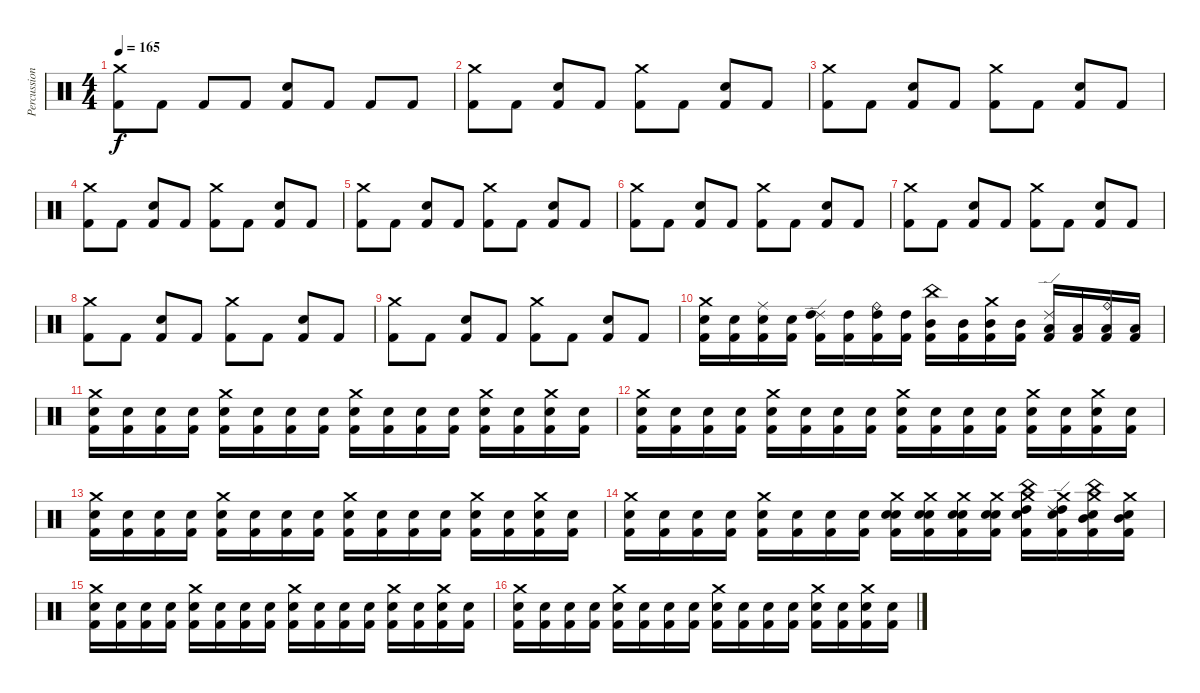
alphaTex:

\track ("Percussions" "Percussion") {instrument percussion}
\staff {score}
\articulation defaults
\ts (4 4)
\tempo 165
\clef neutral
\ks c
("Crash medium (hit)" "Kick (hit) 2").8{dy f} "Kick (hit) 2".8 "Kick (hit) 2".8 "Kick (hit) 2".8 ("Electric Snare (hit)" "Kick (hit) 2").8 "Kick (hit) 2".8 "Kick (hit) 2".8 "Kick (hit) 2".8 |
("Crash medium (hit)" "Kick (hit) 2").8 "Kick (hit) 2".8 ("Electric Snare (hit)" "Kick (hit) 2").8 "Kick (hit) 2".8 ("Crash medium (hit)" "Kick (hit) 2").8 "Kick (hit) 2".8 ("Electric Snare (hit)" "Kick (hit) 2").8 "Kick (hit) 2".8 |
("Crash medium (hit)" "Kick (hit) 2").8 "Kick (hit) 2".8 ("Electric Snare (hit)" "Kick (hit) 2").8 "Kick (hit) 2".8 ("Crash medium (hit)" "Kick (hit) 2").8 "Kick (hit) 2".8 ("Electric Snare (hit)" "Kick (hit) 2").8 "Kick (hit) 2".8 |
("Crash medium (hit)" "Kick (hit) 2").8 "Kick (hit) 2".8 ("Electric Snare (hit)" "Kick (hit) 2").8 "Kick (hit) 2".8 ("Crash medium (hit)" "Kick (hit) 2").8 "Kick (hit) 2".8 ("Electric Snare (hit)" "Kick (hit) 2").8 "Kick (hit) 2".8 |
("Crash medium (hit)" "Kick (hit) 2").8 "Kick (hit) 2".8 ("Electric Snare (hit)" "Kick (hit) 2").8 "Kick (hit) 2".8 ("Crash medium (hit)" "Kick (hit) 2").8 "Kick (hit) 2".8 ("Electric Snare (hit)" "Kick (hit) 2").8 "Kick (hit) 2".8 |
("Crash medium (hit)" "Kick (hit) 2").8 "Kick (hit) 2".8 ("Electric Snare (hit)" "Kick (hit) 2").8 "Kick (hit) 2".8 ("Crash medium (hit)" "Kick (hit) 2").8 "Kick (hit) 2".8 ("Electric Snare (hit)" "Kick (hit) 2").8 "Kick (hit) 2".8 |
("Crash medium (hit)" "Kick (hit) 2").8 "Kick (hit) 2".8 ("Electric Snare (hit)" "Kick (hit) 2").8 "Kick (hit) 2".8 ("Crash medium (hit)" "Kick (hit) 2").8 "Kick (hit) 2".8 ("Electric Snare (hit)" "Kick (hit) 2").8 "Kick (hit) 2".8 |
("Crash medium (hit)" "Kick (hit) 2").8 "Kick (hit) 2".8 ("Electric Snare (hit)" "Kick (hit) 2").8 "Kick (hit) 2".8 ("Crash medium (hit)" "Kick (hit) 2").8 "Kick (hit) 2".8 ("Electric Snare (hit)" "Kick (hit) 2").8 "Kick (hit) 2".8 |
("Crash medium (hit)" "Kick (hit) 2").8 "Kick (hit) 2".8 ("Electric Snare (hit)" "Kick (hit) 2").8 "Kick (hit) 2".8 ("Crash medium (hit)" "Kick (hit) 2").8 "Kick (hit) 2".8 ("Electric Snare (hit)" "Kick (hit) 2").8 "Kick (hit) 2".8 |
("Crash medium (hit)" "Snare (hit) 2" "Kick (hit) 2").16 ("Snare (hit) 2" "Kick (hit) 2").16 ("Ride (middle)" "Snare (hit) 2" "Kick (hit) 2").16 ("Snare (hit) 2" "Kick (hit) 2").16 ("Ride (edge) 2" "High Tom (hit)" "Kick (hit) 2").16 ("High Tom (hit)" "Kick (hit) 2").16 ("Ride (bell)" "High Tom (hit)" "Kick (hit) 2").16 ("High Tom (hit)" "Kick (hit) 2").16 ("China (hit)" "Mid Tom (hit)" "Kick (hit) 2").16 ("Mid Tom (hit)" "Kick (hit) 2").16 ("Crash medium (hit)" "Mid Tom (hit)" "Kick (hit) 2").16 ("Mid Tom (hit)" "Kick (hit) 2").16 ("Ride (edge) 2" "Low Tom (hit)" "Kick (hit) 2").16 ("Low Tom (hit)" "Kick (hit) 2").16 ("Ride (bell)" "Low Tom (hit)" "Kick (hit) 2").16 ("Low Tom (hit)" "Kick (hit) 2").16 |
("Crash medium (hit)" "Electric Snare (hit)" "Kick (hit) 2").16 ("Electric Snare (hit)" "Kick (hit) 2").16 ("Electric Snare (hit)" "Kick (hit) 2").16 ("Electric Snare (hit)" "Kick (hit) 2").16 ("Crash medium (hit)" "Electric Snare (hit)" "Kick (hit) 2").16 ("Electric Snare (hit)" "Kick (hit) 2").16 ("Electric Snare (hit)" "Kick (hit) 2").16 ("Electric Snare (hit)" "Kick (hit) 2").16 ("Crash medium (hit)" "Electric Snare (hit)" "Kick (hit) 2").16 ("Electric Snare (hit)" "Kick (hit) 2").16 ("Electric Snare (hit)" "Kick (hit) 2").16 ("Electric Snare (hit)" "Kick (hit) 2").16 ("Crash medium (hit)" "Electric Snare (hit)" "Kick (hit) 2").16 ("Electric Snare (hit)" "Kick (hit) 2").16 ("Crash medium (hit)" "Electric Snare (hit)" "Kick (hit) 2").16 ("Electric Snare (hit)" "Kick (hit) 2").16 |
("Crash medium (hit)" "Electric Snare (hit)" "Kick (hit) 2").16 ("Electric Snare (hit)" "Kick (hit) 2").16 ("Electric Snare (hit)" "Kick (hit) 2").16 ("Electric Snare (hit)" "Kick (hit) 2").16 ("Crash medium (hit)" "Electric Snare (hit)" "Kick (hit) 2").16 ("Electric Snare (hit)" "Kick (hit) 2").16 ("Electric Snare (hit)" "Kick (hit) 2").16 ("Electric Snare (hit)" "Kick (hit) 2").16 ("Crash medium (hit)" "Electric Snare (hit)" "Kick (hit) 2").16 ("Electric Snare (hit)" "Kick (hit) 2").16 ("Electric Snare (hit)" "Kick (hit) 2").16 ("Electric Snare (hit)" "Kick (hit) 2").16 ("Crash medium (hit)" "Electric Snare (hit)" "Kick (hit) 2").16 ("Electric Snare (hit)" "Kick (hit) 2").16 ("Crash medium (hit)" "Electric Snare (hit)" "Kick (hit) 2").16 ("Electric Snare (hit)" "Kick (hit) 2").16 |
("Crash medium (hit)" "Electric Snare (hit)" "Kick (hit) 2").16 ("Electric Snare (hit)" "Kick (hit) 2").16 ("Electric Snare (hit)" "Kick (hit) 2").16 ("Electric Snare (hit)" "Kick (hit) 2").16 ("Crash medium (hit)" "Electric Snare (hit)" "Kick (hit) 2").16 ("Electric Snare (hit)" "Kick (hit) 2").16 ("Electric Snare (hit)" "Kick (hit) 2").16 ("Electric Snare (hit)" "Kick (hit) 2").16 ("Crash medium (hit)" "Electric Snare (hit)" "Kick (hit) 2").16 ("Electric Snare (hit)" "Kick (hit) 2").16 ("Electric Snare (hit)" "Kick (hit) 2").16 ("Electric Snare (hit)" "Kick (hit) 2").16 ("Crash medium (hit)" "Electric Snare (hit)" "Kick (hit) 2").16 ("Electric Snare (hit)" "Kick (hit) 2").16 ("Crash medium (hit)" "Electric Snare (hit)" "Kick (hit) 2").16 ("Electric Snare (hit)" "Kick (hit) 2").16 |
("Crash medium (hit)" "Electric Snare (hit)" "Kick (hit) 2").16 ("Electric Snare (hit)" "Kick (hit) 2").16 ("Electric Snare (hit)" "Kick (hit) 2").16 ("Electric Snare (hit)" "Kick (hit) 2").16 ("Crash medium (hit)" "Electric Snare (hit)" "Kick (hit) 2").16 ("Electric Snare (hit)" "Kick (hit) 2").16 ("Electric Snare (hit)" "Kick (hit) 2").16 ("Electric Snare (hit)" "Kick (hit) 2").16 ("Snare (hit) 2" "Crash medium (hit)" "Electric Snare (hit)" "Kick (hit) 2").16 ("Snare (hit) 2" "Crash medium (hit)" "Electric Snare (hit)" "Kick (hit) 2").16 ("Snare (hit) 2" "Crash medium (hit)" "Electric Snare (hit)" "Kick (hit) 2").16 ("Snare (hit) 2" "Crash medium (hit)" "Electric Snare (hit)" "Kick (hit) 2").16 ("High Tom (hit)" "China (hit)" "Crash medium (hit)" "Electric Snare (hit)" "Kick (hit) 2").16 ("High Tom (hit)" "Ride (edge) 2" "Crash medium (hit)" "Electric Snare (hit)" "Kick (hit) 2").16 ("Mid Tom (hit)" "China (hit)" "Crash medium (hit)" "Electric Snare (hit)" "Kick (hit) 2").16 ("Mid Tom (hit)" "Crash medium (hit)" "Electric Snare (hit)" "Kick (hit) 2").16 |
("Crash medium (hit)" "Electric Snare (hit)" "Kick (hit) 2").16 ("Electric Snare (hit)" "Kick (hit) 2").16 ("Electric Snare (hit)" "Kick (hit) 2").16 ("Electric Snare (hit)" "Kick (hit) 2").16 ("Crash medium (hit)" "Electric Snare (hit)" "Kick (hit) 2").16 ("Electric Snare (hit)" "Kick (hit) 2").16 ("Electric Snare (hit)" "Kick (hit) 2").16 ("Electric Snare (hit)" "Kick (hit) 2").16 ("Crash medium (hit)" "Electric Snare (hit)" "Kick (hit) 2").16 ("Electric Snare (hit)" "Kick (hit) 2").16 ("Electric Snare (hit)" "Kick (hit) 2").16 ("Electric Snare (hit)" "Kick (hit) 2").16 ("Crash medium (hit)" "Electric Snare (hit)" "Kick (hit) 2").16 ("Electric Snare (hit)" "Kick (hit) 2").16 ("Crash medium (hit)" "Electric Snare (hit)" "Kick (hit) 2").16 ("Electric Snare (hit)" "Kick (hit) 2").16 |
("Crash medium (hit)" "Electric Snare (hit)" "Kick (hit) 2").16 ("Electric Snare (hit)" "Kick (hit) 2").16 ("Electric Snare (hit)" "Kick (hit) 2").16 ("Electric Snare (hit)" "Kick (hit) 2").16 ("Crash medium (hit)" "Electric Snare (hit)" "Kick (hit) 2").16 ("Electric Snare (hit)" "Kick (hit) 2").16 ("Electric Snare (hit)" "Kick (hit) 2").16 ("Electric Snare (hit)" "Kick (hit) 2").16 ("Crash medium (hit)" "Electric Snare (hit)" "Kick (hit) 2").16 ("Electric Snare (hit)" "Kick (hit) 2").16 ("Electric Snare (hit)" "Kick (hit) 2").16 ("Electric Snare (hit)" "Kick (hit) 2").16 ("Crash medium (hit)" "Electric Snare (hit)" "Kick (hit) 2").16 ("Electric Snare (hit)" "Kick (hit) 2").16 ("Crash medium (hit)" "Electric Snare (hit)" "Kick (hit) 2").16 ("Electric Snare (hit)" "Kick (hit) 2").16
